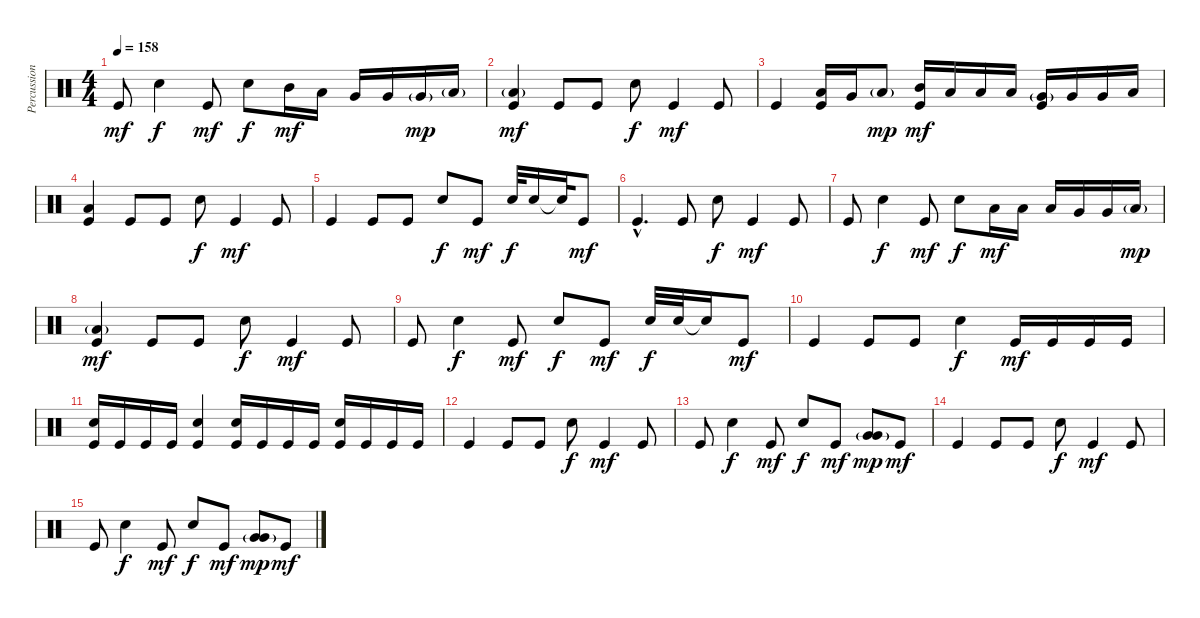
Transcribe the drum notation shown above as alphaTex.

\track ("Percussion" "Percussion") {instrument percussion}
\staff {score}
\articulation defaults
\ts (4 4)
\tempo 158
\clef neutral
\ks c "Kick (hit)".8{dy mf} "Electric Snare (hit)".4{dy f} "Kick (hit)".8{dy mf} "Electric Snare (hit)".8{dy f} "Mid Tom (hit)".16{dy mf} "Low Tom (hit)".16 "Very Low Tom (hit)".16 "Very Low Tom (hit)".16 "Very Low Tom (hit)"{g}.16{dy mp} "Low Floor Tom (hit)"{g}.16
|
("Low Floor Tom (hit)"{g} "Kick (hit)").4{dy mf} "Kick (hit)".8 "Kick (hit)".8 "Electric Snare (hit)".8{dy f} "Kick (hit)".4{dy mf} "Kick (hit)".8 |
"Kick (hit)".4 ("Low Tom (hit)" "Kick (hit)").16 "Very Low Tom (hit)".16 "Low Floor Tom (hit)"{g}.8{dy mp} ("Mid Tom (hit)" "Kick (hit)").16{dy mf} "Low Tom (hit)".16 "Low Tom (hit)".16 "Low Tom (hit)".16 ("Very Low Tom (hit)"{g} "Kick (hit)").16 "Very Low Tom (hit)".16 "Very Low Tom (hit)".16 "Low Floor Tom (hit)".16 |
("Low Floor Tom (hit)" "Kick (hit)").4 "Kick (hit)".8 "Kick (hit)".8 "Electric Snare (hit)".8{dy f} "Kick (hit)".4{dy mf} "Kick (hit)".8 |
"Kick (hit)".4 "Kick (hit)".8 "Kick (hit)".8 "Electric Snare (hit)".8{dy f} "Kick (hit)".8{dy mf} "Electric Snare (hit)".32{dy f} "Electric Snare (hit)".16 "Snare (hit)"{t}.32 "Kick (hit)".8{dy mf} |
"Kick (hit)"{hac}.4{d} "Kick (hit)".8 "Electric Snare (hit)".8{dy f} "Kick (hit)".4{dy mf} "Kick (hit)".8 |
"Kick (hit)".8 "Electric Snare (hit)".4{dy f} "Kick (hit)".8{dy mf} "Electric Snare (hit)".8{dy f} "Low Tom (hit)".16{dy mf} "Low Tom (hit)".16 "Low Tom (hit)".16 "Very Low Tom (hit)".16 "Very Low Tom (hit)".16 "Low Floor Tom (hit)"{g}.16{dy mp} |
("Low Floor Tom (hit)"{g} "Kick (hit)").4{dy mf} "Kick (hit)".8 "Kick (hit)".8 "Electric Snare (hit)".8{dy f} "Kick (hit)".4{dy mf} "Kick (hit)".8 |
"Kick (hit)".8 "Electric Snare (hit)".4{dy f} "Kick (hit)".8{dy mf} "Electric Snare (hit)".8{dy f} "Kick (hit)".8{dy mf} "Electric Snare (hit)".32{dy f} "Electric Snare (hit)".32 "Snare (hit)"{t}.16 "Kick (hit)".8{dy mf} |
"Kick (hit)".4 "Kick (hit)".8 "Kick (hit)".8 "Electric Snare (hit)".4{dy f} "Kick (hit)".16{dy mf} "Kick (hit)".16 "Kick (hit)".16 "Kick (hit)".16 |
("Electric Snare (hit)" "Kick (hit)").16 "Kick (hit)".16 "Kick (hit)".16 "Kick (hit)".16 ("Electric Snare (hit)" "Kick (hit)").4 ("Electric Snare (hit)" "Kick (hit)").16 "Kick (hit)".16 "Kick (hit)".16 "Kick (hit)".16 ("Electric Snare (hit)" "Kick (hit)").16 "Kick (hit)".16 "Kick (hit)".16 "Kick (hit)".16 |
"Kick (hit)".4 "Kick (hit)".8 "Kick (hit)".8 "Electric Snare (hit)".8{dy f} "Kick (hit)".4{dy mf} "Kick (hit)".8 |
"Kick (hit)".8 "Electric Snare (hit)".4{dy f} "Kick (hit)".8{dy mf} "Electric Snare (hit)".8{dy f} "Kick (hit)".8{dy mf} ("Very Low Tom (hit)"{g} "Very Low Tom (hit)").8{dy mp} "Kick (hit)".8{dy mf} |
"Kick (hit)".4 "Kick (hit)".8 "Kick (hit)".8 "Electric Snare (hit)".8{dy f} "Kick (hit)".4{dy mf} "Kick (hit)".8 |
"Kick (hit)".8 "Electric Snare (hit)".4{dy f} "Kick (hit)".8{dy mf} "Electric Snare (hit)".8{dy f} "Kick (hit)".8{dy mf} ("Very Low Tom (hit)"{g} "Very Low Tom (hit)").8{dy mp} "Kick (hit)".8{dy mf}
